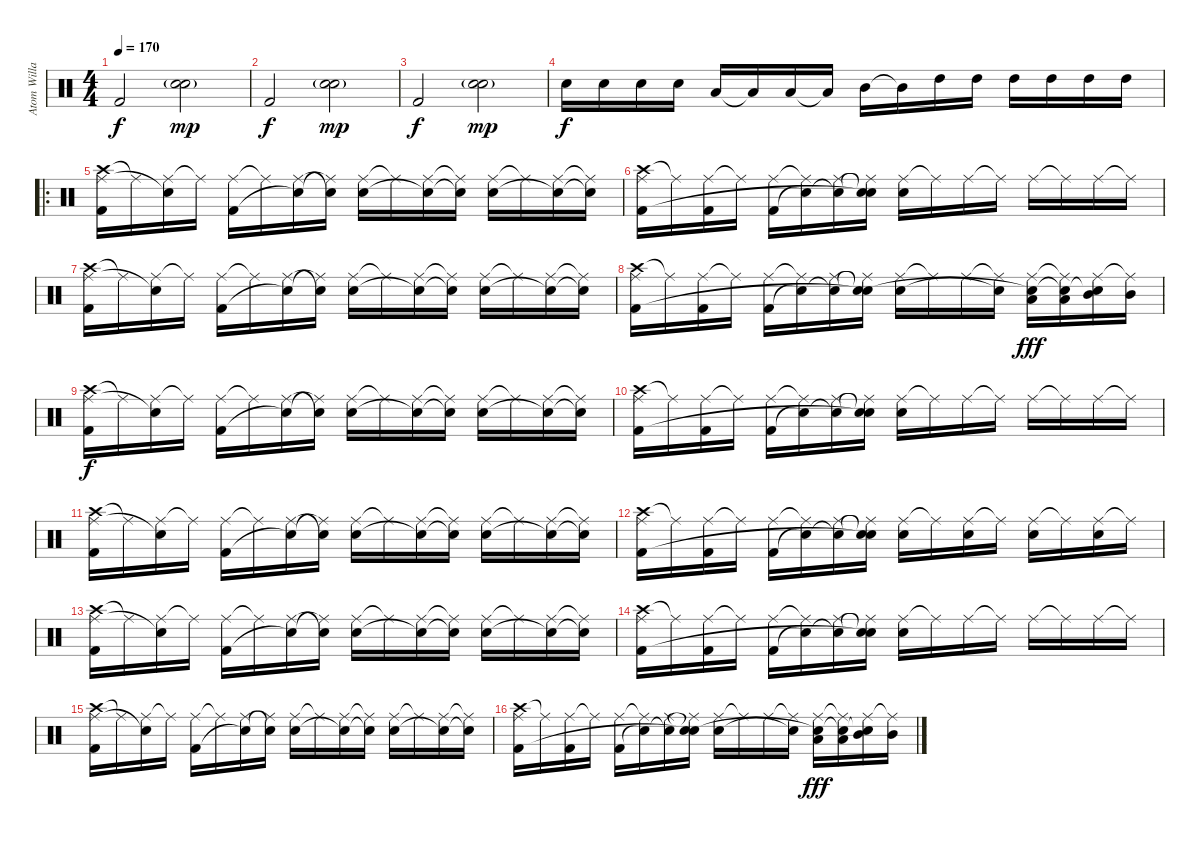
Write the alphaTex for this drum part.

\track ("Atom Willard" "Atom Willa") {instrument percussion}
\staff {score}
\articulation defaults
\ts (4 4)
\tempo 170
\clef neutral
\ks c "Kick (hit) 2".2{dy f volume 10}
("Electric Snare (hit)"{g} "Snare (hit) 2"{g}).2{dy mp} |
"Kick (hit) 2".2{dy f volume 10} ("Electric Snare (hit)"{g} "Snare (hit) 2"{g}).2{dy mp} |
"Kick (hit) 2".2{dy f volume 12} ("Electric Snare (hit)"{g} "Snare (hit) 2"{g}).2{dy mp} |
"Electric Snare (hit)".16{dy f} "Electric Snare (hit)".16 "Electric Snare (hit)".16 "Electric Snare (hit)".16 "Low Tom (hit)".16 "Low Tom (hit)"{t}.16 "Low Tom (hit)".16 "Low Tom (hit)"{t}.16 "Mid Tom (hit)".16 "Mid Tom (hit)"{t}.16 "High Tom (hit)".16 "High Tom (hit)".16 "High Tom (hit)".16 "High Tom (hit)".16 "High Tom (hit)".16 "High Tom (hit)".16 |
\ro
("Crash high (hit)" "Ride (middle)" "Kick (hit) 2").16 "Ride (middle)"{t}.16 ("Ride (middle)" "Snare (hit)"{t}).16 "Ride (middle)"{t}.16 ("Ride (middle)" "Kick (hit) 2").16 "Ride (middle)"{t}.16 ("Ride (middle)" "Snare (hit)"{t}).16 ("Snare (hit)"{t} "Ride (middle)"{t}).16 ("Ride (middle)" "Electric Snare (hit)").16 "Ride (middle)"{t}.16 ("Ride (middle)" "Electric Snare (hit)"{t}).16 ("Ride (middle)"{t} "Snare (hit)"{t}).16 ("Ride (middle)" "Electric Snare (hit)").16 "Ride (middle)"{t}.16 ("Ride (middle)" "Snare (hit)"{t}).16 ("Ride (middle)"{t} "Snare (hit)"{t}).16 |
("Crash high (hit)" "Ride (middle)" "Kick (hit) 2").16 "Ride (middle)"{t}.16 ("Ride (middle)" "Kick (hit) 2").16 "Ride (middle)"{t}.16 ("Ride (middle)" "Kick (hit) 2").16 ("Ride (middle)"{t} "Snare (hit)"{t}).16 ("Ride (middle)" "Snare (hit)"{t}).16 ("Snare (hit)"{t} "Ride (middle)"{t} "Snare (hit)"{t}).16 ("Ride (middle)" "Electric Snare (hit)").16 "Ride (middle)"{t}.16 "Ride (middle)".16 "Ride (middle)"{t}.16 "Ride (middle)".16 "Ride (middle)"{t}.16 "Ride (middle)".16 "Ride (middle)"{t}.16 |
("Crash high (hit)" "Ride (middle)" "Kick (hit) 2").16 "Ride (middle)"{t}.16 ("Ride (middle)" "Snare (hit)"{t}).16 "Ride (middle)"{t}.16 ("Ride (middle)" "Kick (hit) 2").16 "Ride (middle)"{t}.16 ("Ride (middle)" "Snare (hit)"{t}).16 ("Snare (hit)"{t} "Ride (middle)"{t}).16 ("Ride (middle)" "Electric Snare (hit)").16 "Ride (middle)"{t}.16 ("Ride (middle)" "Electric Snare (hit)"{t}).16 ("Ride (middle)"{t} "Snare (hit)"{t}).16 ("Ride (middle)" "Electric Snare (hit)").16 "Ride (middle)"{t}.16 ("Ride (middle)" "Snare (hit)"{t}).16 ("Ride (middle)"{t} "Snare (hit)"{t}).16 |
("Crash high (hit)" "Ride (middle)" "Kick (hit) 2").16 "Ride (middle)"{t}.16 ("Ride (middle)" "Kick (hit) 2").16 "Ride (middle)"{t}.16 ("Ride (middle)" "Kick (hit) 2").16 ("Ride (middle)"{t} "Snare (hit)"{t}).16 ("Ride (middle)" "Snare (hit)"{t}).16 ("Snare (hit)"{t} "Ride (middle)"{t} "Snare (hit)"{t}).16 ("Ride (middle)" "Electric Snare (hit)").16 "Ride (middle)"{t}.16 "Ride (middle)".16 ("Ride (middle)"{t} "Snare (hit)"{t}).16 ("Low Tom (hit)" "Ride (middle)" "Snare (hit)"{t}).16{dy fff} ("Low Tom (hit)" "Ride (middle)"{t} "Snare (hit)"{t}).16 ("Mid Tom (hit)" "Ride (middle)" "Snare (hit)"{t}).16 ("Mid Tom (hit)" "Ride (middle)"{t}).16 |
("Crash high (hit)" "Ride (middle)" "Kick (hit) 2").16{dy f} "Ride (middle)"{t}.16 ("Ride (middle)" "Snare (hit)"{t}).16 "Ride (middle)"{t}.16 ("Ride (middle)" "Kick (hit) 2").16 "Ride (middle)"{t}.16 ("Ride (middle)" "Snare (hit)"{t}).16 ("Snare (hit)"{t} "Ride (middle)"{t}).16 ("Ride (middle)" "Electric Snare (hit)").16 "Ride (middle)"{t}.16 ("Ride (middle)" "Electric Snare (hit)"{t}).16 ("Ride (middle)"{t} "Snare (hit)"{t}).16 ("Ride (middle)" "Electric Snare (hit)").16 "Ride (middle)"{t}.16 ("Ride (middle)" "Snare (hit)"{t}).16 ("Ride (middle)"{t} "Snare (hit)"{t}).16 |
("Crash high (hit)" "Ride (middle)" "Kick (hit) 2").16 "Ride (middle)"{t}.16 ("Ride (middle)" "Kick (hit) 2").16 "Ride (middle)"{t}.16 ("Ride (middle)" "Kick (hit) 2").16 ("Ride (middle)"{t} "Snare (hit)"{t}).16 ("Ride (middle)" "Snare (hit)"{t}).16 ("Snare (hit)"{t} "Ride (middle)"{t} "Snare (hit)"{t}).16 ("Ride (middle)" "Electric Snare (hit)").16 "Ride (middle)"{t}.16 "Ride (middle)".16 "Ride (middle)"{t}.16 "Ride (middle)".16 "Ride (middle)"{t}.16 "Ride (middle)".16 "Ride (middle)"{t}.16 |
("Crash high (hit)" "Ride (middle)" "Kick (hit) 2").16 "Ride (middle)"{t}.16 ("Ride (middle)" "Snare (hit)"{t}).16 "Ride (middle)"{t}.16 ("Ride (middle)" "Kick (hit) 2").16 "Ride (middle)"{t}.16 ("Ride (middle)" "Snare (hit)"{t}).16 ("Snare (hit)"{t} "Ride (middle)"{t}).16 ("Ride (middle)" "Electric Snare (hit)").16 "Ride (middle)"{t}.16 ("Ride (middle)" "Electric Snare (hit)"{t}).16 ("Ride (middle)"{t} "Snare (hit)"{t}).16 ("Ride (middle)" "Electric Snare (hit)").16 "Ride (middle)"{t}.16 ("Ride (middle)" "Snare (hit)"{t}).16 ("Ride (middle)"{t} "Snare (hit)"{t}).16 |
("Crash high (hit)" "Ride (middle)" "Kick (hit) 2").16 "Ride (middle)"{t}.16 ("Ride (middle)" "Kick (hit) 2").16 "Ride (middle)"{t}.16 ("Ride (middle)" "Kick (hit) 2").16 ("Ride (middle)"{t} "Snare (hit)"{t}).16 ("Ride (middle)" "Snare (hit)"{t}).16 ("Snare (hit)"{t} "Ride (middle)"{t} "Snare (hit)"{t}).16 ("Ride (middle)" "Electric Snare (hit)").16 "Ride (middle)"{t}.16 ("Ride (middle)" "Electric Snare (hit)").16 "Ride (middle)"{t}.16 ("Ride (middle)" "Electric Snare (hit)").16 "Ride (middle)"{t}.16 ("Ride (middle)" "Electric Snare (hit)").16 "Ride (middle)"{t}.16 |
("Crash high (hit)" "Ride (middle)" "Kick (hit) 2").16 "Ride (middle)"{t}.16 ("Ride (middle)" "Snare (hit)"{t}).16 "Ride (middle)"{t}.16 ("Ride (middle)" "Kick (hit) 2").16 "Ride (middle)"{t}.16 ("Ride (middle)" "Snare (hit)"{t}).16 ("Snare (hit)"{t} "Ride (middle)"{t}).16 ("Ride (middle)" "Electric Snare (hit)").16 "Ride (middle)"{t}.16 ("Ride (middle)" "Electric Snare (hit)"{t}).16 ("Ride (middle)"{t} "Snare (hit)"{t}).16 ("Ride (middle)" "Electric Snare (hit)").16 "Ride (middle)"{t}.16 ("Ride (middle)" "Snare (hit)"{t}).16 ("Ride (middle)"{t} "Snare (hit)"{t}).16 |
("Crash high (hit)" "Ride (middle)" "Kick (hit) 2").16 "Ride (middle)"{t}.16 ("Ride (middle)" "Kick (hit) 2").16 "Ride (middle)"{t}.16 ("Ride (middle)" "Kick (hit) 2").16 ("Ride (middle)"{t} "Snare (hit)"{t}).16 ("Ride (middle)" "Snare (hit)"{t}).16 ("Snare (hit)"{t} "Ride (middle)"{t} "Snare (hit)"{t}).16 ("Ride (middle)" "Electric Snare (hit)").16 "Ride (middle)"{t}.16 "Ride (middle)".16 "Ride (middle)"{t}.16 "Ride (middle)".16 "Ride (middle)"{t}.16 "Ride (middle)".16 "Ride (middle)"{t}.16 |
("Crash high (hit)" "Ride (middle)" "Kick (hit) 2").16 "Ride (middle)"{t}.16 ("Ride (middle)" "Snare (hit)"{t}).16 "Ride (middle)"{t}.16 ("Ride (middle)" "Kick (hit) 2").16 "Ride (middle)"{t}.16 ("Ride (middle)" "Snare (hit)"{t}).16 ("Snare (hit)"{t} "Ride (middle)"{t}).16 ("Ride (middle)" "Electric Snare (hit)").16 "Ride (middle)"{t}.16 ("Ride (middle)" "Electric Snare (hit)"{t}).16 ("Ride (middle)"{t} "Snare (hit)"{t}).16 ("Ride (middle)" "Electric Snare (hit)").16 "Ride (middle)"{t}.16 ("Ride (middle)" "Snare (hit)"{t}).16 ("Ride (middle)"{t} "Snare (hit)"{t}).16 |
("Crash high (hit)" "Ride (middle)" "Kick (hit) 2").16 "Ride (middle)"{t}.16 ("Ride (middle)" "Kick (hit) 2").16 "Ride (middle)"{t}.16 ("Ride (middle)" "Kick (hit) 2").16 ("Ride (middle)"{t} "Snare (hit)"{t}).16 ("Ride (middle)" "Snare (hit)"{t}).16 ("Snare (hit)"{t} "Ride (middle)"{t} "Snare (hit)"{t}).16 ("Ride (middle)" "Electric Snare (hit)").16 "Ride (middle)"{t}.16 "Ride (middle)".16 ("Ride (middle)"{t} "Snare (hit)"{t}).16 ("Low Tom (hit)" "Ride (middle)" "Snare (hit)"{t}).16{dy fff} ("Low Tom (hit)" "Ride (middle)"{t} "Snare (hit)"{t}).16 ("Mid Tom (hit)" "Ride (middle)" "Snare (hit)"{t}).16 ("Mid Tom (hit)" "Ride (middle)"{t}).16
